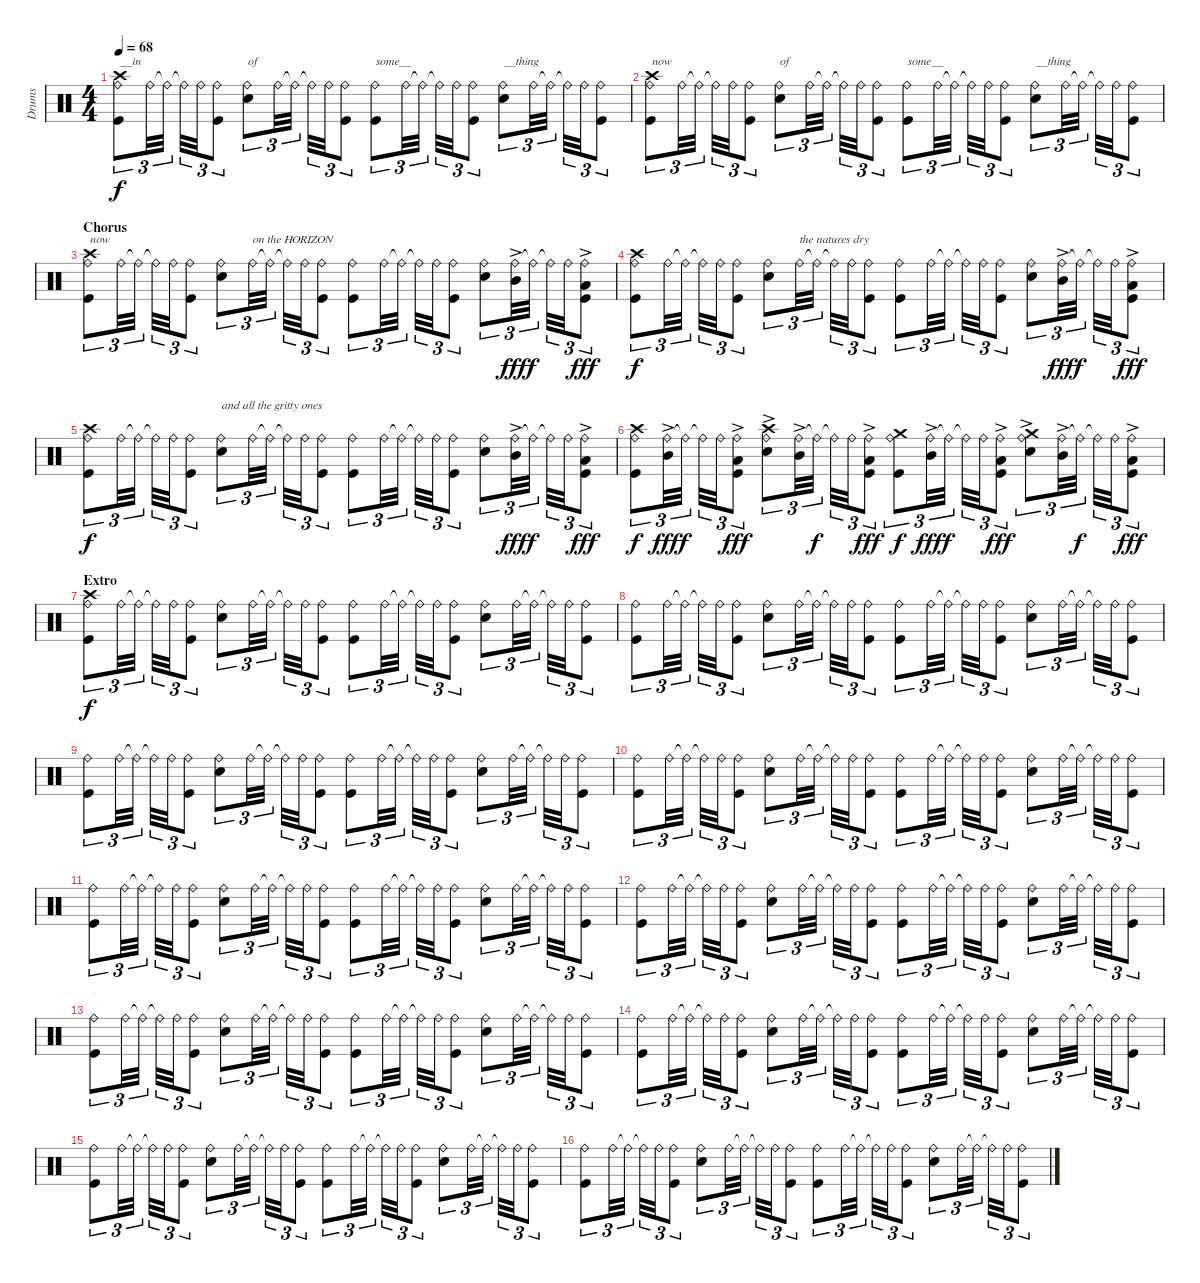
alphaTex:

\track ("Drums" "Drums") {instrument percussion}
\staff {score}
\articulation defaults
\ts (4 4)
\tempo 68
\clef neutral
\ks c
("Ride (bell)" "Crash high (hit)" "Kick (hit)").8{tu (3 2) txt "__in" dy f} "Ride (bell)".32{tu (3 2)} "Ride (bell)"{t}.32{tu (3 2)} "Ride (bell)"{t}.32{tu (3 2)} "Ride (bell)".32{tu (3 2)} ("Ride (bell)" "Kick (hit)").8{tu (3 2)} ("Ride (bell)" "Snare (hit) 2").8{tu (3 2) txt "of"} "Ride (bell)".32{tu (3 2)} "Ride (bell)"{t}.32{tu (3 2)} "Ride (bell)"{t}.32{tu (3 2)} "Ride (bell)".32{tu (3 2)} ("Ride (bell)" "Kick (hit)").8{tu (3 2)} ("Ride (bell)" "Kick (hit)").8{tu (3 2) txt "some__"} "Ride (bell)".32{tu (3 2)} "Ride (bell)"{t}.32{tu (3 2)} "Ride (bell)"{t}.32{tu (3 2)} "Ride (bell)".32{tu (3 2)} ("Ride (bell)" "Kick (hit)").8{tu (3 2)} ("Ride (bell)" "Snare (hit) 2").8{tu (3 2) txt "__thing"} "Ride (bell)".32{tu (3 2)} "Ride (bell)"{t}.32{tu (3 2)} "Ride (bell)"{t}.32{tu (3 2)} "Ride (bell)".32{tu (3 2)} ("Ride (bell)" "Kick (hit)").8{tu (3 2)} |
("Ride (bell)" "Crash high (hit)" "Kick (hit)").8{tu (3 2) txt "now"} "Ride (bell)".32{tu (3 2)} "Ride (bell)"{t}.32{tu (3 2)} "Ride (bell)"{t}.32{tu (3 2)} "Ride (bell)".32{tu (3 2)} ("Ride (bell)" "Kick (hit)").8{tu (3 2)} ("Ride (bell)" "Snare (hit) 2").8{tu (3 2) txt "of"} "Ride (bell)".32{tu (3 2)} "Ride (bell)"{t}.32{tu (3 2)} "Ride (bell)"{t}.32{tu (3 2)} "Ride (bell)".32{tu (3 2)} ("Ride (bell)" "Kick (hit)").8{tu (3 2)} ("Ride (bell)" "Kick (hit)").8{tu (3 2) txt "some__"} "Ride (bell)".32{tu (3 2)} "Ride (bell)"{t}.32{tu (3 2)} "Ride (bell)"{t}.32{tu (3 2)} "Ride (bell)".32{tu (3 2)} ("Ride (bell)" "Kick (hit)").8{tu (3 2)} ("Ride (bell)" "Snare (hit) 2").8{tu (3 2) txt "__thing"} "Ride (bell)".32{tu (3 2)} "Ride (bell)"{t}.32{tu (3 2)} "Ride (bell)"{t}.32{tu (3 2)} "Ride (bell)".32{tu (3 2)} ("Ride (bell)" "Kick (hit)").8{tu (3 2)} |
\section ("" "Chorus")
("Ride (bell)" "Crash high (hit)" "Kick (hit)").8{tu (3 2) txt "now"} "Ride (bell)".32{tu (3 2)} "Ride (bell)"{t}.32{tu (3 2)} "Ride (bell)"{t}.32{tu (3 2)} "Ride (bell)".32{tu (3 2)} ("Ride (bell)" "Kick (hit)").8{tu (3 2)} ("Ride (bell)" "Snare (hit) 2").8{tu (3 2)} "Ride (bell)".32{tu (3 2) txt "on the HORIZON"} "Ride (bell)"{t}.32{tu (3 2)} "Ride (bell)"{t}.32{tu (3 2)} "Ride (bell)".32{tu (3 2)} ("Ride (bell)" "Kick (hit)").8{tu (3 2)} ("Ride (bell)" "Kick (hit)").8{tu (3 2)} "Ride (bell)".32{tu (3 2)} "Ride (bell)"{t}.32{tu (3 2)} "Ride (bell)"{t}.32{tu (3 2)} "Ride (bell)".32{tu (3 2)} ("Ride (bell)" "Kick (hit)").8{tu (3 2)} ("Ride (bell)" "Snare (hit) 2").8{tu (3 2)} ("Ride (bell)" "Mid Tom (hit)"{ac}).32{tu (3 2) dy fff} "Ride (bell)"{t}.32{tu (3 2) dy f} "Ride (bell)"{t}.32{tu (3 2)} "Ride (bell)".32{tu (3 2)} ("Ride (bell)" "Low Tom (hit)"{ac} "Kick (hit)").8{tu (3 2) dy fff} |
("Ride (bell)" "Crash high (hit)" "Kick (hit)").8{tu (3 2) dy f} "Ride (bell)".32{tu (3 2)} "Ride (bell)"{t}.32{tu (3 2)} "Ride (bell)"{t}.32{tu (3 2)} "Ride (bell)".32{tu (3 2)} ("Ride (bell)" "Kick (hit)").8{tu (3 2)} ("Ride (bell)" "Snare (hit) 2").8{tu (3 2)} "Ride (bell)".32{tu (3 2) txt "the natures dry"} "Ride (bell)"{t}.32{tu (3 2)} "Ride (bell)"{t}.32{tu (3 2)} "Ride (bell)".32{tu (3 2)} ("Ride (bell)" "Kick (hit)").8{tu (3 2)} ("Ride (bell)" "Kick (hit)").8{tu (3 2)} "Ride (bell)".32{tu (3 2)} "Ride (bell)"{t}.32{tu (3 2)} "Ride (bell)"{t}.32{tu (3 2)} "Ride (bell)".32{tu (3 2)} ("Ride (bell)" "Kick (hit)").8{tu (3 2)} ("Ride (bell)" "Snare (hit) 2").8{tu (3 2)} ("Ride (bell)" "Mid Tom (hit)"{ac}).32{tu (3 2) dy fff} "Ride (bell)"{t}.32{tu (3 2) dy f} "Ride (bell)"{t}.32{tu (3 2)} "Ride (bell)".32{tu (3 2)} ("Ride (bell)" "Low Tom (hit)"{ac} "Kick (hit)").8{tu (3 2) dy fff} |
("Ride (bell)" "Crash high (hit)" "Kick (hit)").8{tu (3 2) dy f} "Ride (bell)".32{tu (3 2)} "Ride (bell)"{t}.32{tu (3 2)} "Ride (bell)"{t}.32{tu (3 2)} "Ride (bell)".32{tu (3 2)} ("Ride (bell)" "Kick (hit)").8{tu (3 2)} ("Ride (bell)" "Snare (hit) 2").8{tu (3 2) txt "and all the gritty ones"} "Ride (bell)".32{tu (3 2)} "Ride (bell)"{t}.32{tu (3 2)} "Ride (bell)"{t}.32{tu (3 2)} "Ride (bell)".32{tu (3 2)} ("Ride (bell)" "Kick (hit)").8{tu (3 2)} ("Ride (bell)" "Kick (hit)").8{tu (3 2)} "Ride (bell)".32{tu (3 2)} "Ride (bell)"{t}.32{tu (3 2)} "Ride (bell)"{t}.32{tu (3 2)} "Ride (bell)".32{tu (3 2)} ("Ride (bell)" "Kick (hit)").8{tu (3 2)} ("Ride (bell)" "Snare (hit) 2").8{tu (3 2)} ("Ride (bell)" "Mid Tom (hit)"{ac}).32{tu (3 2) dy fff} "Ride (bell)"{t}.32{tu (3 2) dy f} "Ride (bell)"{t}.32{tu (3 2)} "Ride (bell)".32{tu (3 2)} ("Ride (bell)" "Low Tom (hit)"{ac} "Kick (hit)").8{tu (3 2) dy fff} |
("Ride (bell)" "Crash high (hit)" "Kick (hit)").8{tu (3 2) dy f} ("Ride (bell)" "Mid Tom (hit)"{ac}).32{tu (3 2) dy fff} "Ride (bell)"{t}.32{tu (3 2) dy f} "Ride (bell)"{t}.32{tu (3 2)} "Ride (bell)".32{tu (3 2)} ("Ride (bell)" "Low Tom (hit)"{ac} "Kick (hit)").8{tu (3 2) dy fff} ("Ride (bell)" "Crash high (hit)" "Snare (hit) 2"{ac}).8{tu (3 2)} ("Ride (bell)" "Mid Tom (hit)"{ac}).32{tu (3 2)} "Ride (bell)"{t}.32{tu (3 2) dy f} "Ride (bell)"{t}.32{tu (3 2)} "Ride (bell)".32{tu (3 2)} ("Ride (bell)" "Low Tom (hit)"{ac} "Kick (hit)").8{tu (3 2) dy fff} ("Ride (bell)" "Crash medium (hit)" "Kick (hit)").8{tu (3 2) dy f} ("Ride (bell)" "Mid Tom (hit)"{ac}).32{tu (3 2) dy fff} "Ride (bell)"{t}.32{tu (3 2) dy f} "Ride (bell)"{t}.32{tu (3 2)} "Ride (bell)".32{tu (3 2)} ("Ride (bell)" "Low Tom (hit)"{ac} "Kick (hit)").8{tu (3 2) dy fff} ("Ride (bell)" "Crash medium (hit)" "Snare (hit) 2"{ac}).8{tu (3 2)} ("Ride (bell)" "Mid Tom (hit)"{ac}).32{tu (3 2)} "Ride (bell)"{t}.32{tu (3 2) dy f} "Ride (bell)"{t}.32{tu (3 2)} "Ride (bell)".32{tu (3 2)} ("Ride (bell)" "Low Tom (hit)"{ac} "Kick (hit)").8{tu (3 2) dy fff} |
\section ("" "Extro")
("Ride (bell)" "Crash high (hit)" "Kick (hit)").8{tu (3 2) dy f} "Ride (bell)".32{tu (3 2)} "Ride (bell)"{t}.32{tu (3 2)} "Ride (bell)"{t}.32{tu (3 2)} "Ride (bell)".32{tu (3 2)} ("Ride (bell)" "Kick (hit)").8{tu (3 2)} ("Ride (bell)" "Snare (hit) 2").8{tu (3 2)} "Ride (bell)".32{tu (3 2)} "Ride (bell)"{t}.32{tu (3 2)} "Ride (bell)"{t}.32{tu (3 2)} "Ride (bell)".32{tu (3 2)} ("Ride (bell)" "Kick (hit)").8{tu (3 2)} ("Ride (bell)" "Kick (hit)").8{tu (3 2)} "Ride (bell)".32{tu (3 2)} "Ride (bell)"{t}.32{tu (3 2)} "Ride (bell)"{t}.32{tu (3 2)} "Ride (bell)".32{tu (3 2)} ("Ride (bell)" "Kick (hit)").8{tu (3 2)} ("Ride (bell)" "Snare (hit) 2").8{tu (3 2)} "Ride (bell)".32{tu (3 2)} "Ride (bell)"{t}.32{tu (3 2)} "Ride (bell)"{t}.32{tu (3 2)} "Ride (bell)".32{tu (3 2)} ("Ride (bell)" "Kick (hit)").8{tu (3 2)} |
("Ride (bell)" "Kick (hit)").8{tu (3 2)} "Ride (bell)".32{tu (3 2)} "Ride (bell)"{t}.32{tu (3 2)} "Ride (bell)"{t}.32{tu (3 2)} "Ride (bell)".32{tu (3 2)} ("Ride (bell)" "Kick (hit)").8{tu (3 2)} ("Ride (bell)" "Snare (hit) 2").8{tu (3 2)} "Ride (bell)".32{tu (3 2)} "Ride (bell)"{t}.32{tu (3 2)} "Ride (bell)"{t}.32{tu (3 2)} "Ride (bell)".32{tu (3 2)} ("Ride (bell)" "Kick (hit)").8{tu (3 2)} ("Ride (bell)" "Kick (hit)").8{tu (3 2)} "Ride (bell)".32{tu (3 2)} "Ride (bell)"{t}.32{tu (3 2)} "Ride (bell)"{t}.32{tu (3 2)} "Ride (bell)".32{tu (3 2)} ("Ride (bell)" "Kick (hit)").8{tu (3 2)} ("Ride (bell)" "Snare (hit) 2").8{tu (3 2)} "Ride (bell)".32{tu (3 2)} "Ride (bell)"{t}.32{tu (3 2)} "Ride (bell)"{t}.32{tu (3 2)} "Ride (bell)".32{tu (3 2)} ("Ride (bell)" "Kick (hit)").8{tu (3 2)} |
("Ride (bell)" "Kick (hit)").8{tu (3 2)} "Ride (bell)".32{tu (3 2)} "Ride (bell)"{t}.32{tu (3 2)} "Ride (bell)"{t}.32{tu (3 2)} "Ride (bell)".32{tu (3 2)} ("Ride (bell)" "Kick (hit)").8{tu (3 2)} ("Ride (bell)" "Snare (hit) 2").8{tu (3 2)} "Ride (bell)".32{tu (3 2)} "Ride (bell)"{t}.32{tu (3 2)} "Ride (bell)"{t}.32{tu (3 2)} "Ride (bell)".32{tu (3 2)} ("Ride (bell)" "Kick (hit)").8{tu (3 2)} ("Ride (bell)" "Kick (hit)").8{tu (3 2)} "Ride (bell)".32{tu (3 2)} "Ride (bell)"{t}.32{tu (3 2)} "Ride (bell)"{t}.32{tu (3 2)} "Ride (bell)".32{tu (3 2)} ("Ride (bell)" "Kick (hit)").8{tu (3 2)} ("Ride (bell)" "Snare (hit) 2").8{tu (3 2)} "Ride (bell)".32{tu (3 2)} "Ride (bell)"{t}.32{tu (3 2)} "Ride (bell)"{t}.32{tu (3 2)} "Ride (bell)".32{tu (3 2)} ("Ride (bell)" "Kick (hit)").8{tu (3 2)} |
("Ride (bell)" "Kick (hit)").8{tu (3 2)} "Ride (bell)".32{tu (3 2)} "Ride (bell)"{t}.32{tu (3 2)} "Ride (bell)"{t}.32{tu (3 2)} "Ride (bell)".32{tu (3 2)} ("Ride (bell)" "Kick (hit)").8{tu (3 2)} ("Ride (bell)" "Snare (hit) 2").8{tu (3 2)} "Ride (bell)".32{tu (3 2)} "Ride (bell)"{t}.32{tu (3 2)} "Ride (bell)"{t}.32{tu (3 2)} "Ride (bell)".32{tu (3 2)} ("Ride (bell)" "Kick (hit)").8{tu (3 2)} ("Ride (bell)" "Kick (hit)").8{tu (3 2)} "Ride (bell)".32{tu (3 2)} "Ride (bell)"{t}.32{tu (3 2)} "Ride (bell)"{t}.32{tu (3 2)} "Ride (bell)".32{tu (3 2)} ("Ride (bell)" "Kick (hit)").8{tu (3 2)} ("Ride (bell)" "Snare (hit) 2").8{tu (3 2)} "Ride (bell)".32{tu (3 2)} "Ride (bell)"{t}.32{tu (3 2)} "Ride (bell)"{t}.32{tu (3 2)} "Ride (bell)".32{tu (3 2)} ("Ride (bell)" "Kick (hit)").8{tu (3 2)} |
("Ride (bell)" "Kick (hit)").8{tu (3 2)} "Ride (bell)".32{tu (3 2)} "Ride (bell)"{t}.32{tu (3 2)} "Ride (bell)"{t}.32{tu (3 2)} "Ride (bell)".32{tu (3 2)} ("Ride (bell)" "Kick (hit)").8{tu (3 2)} ("Ride (bell)" "Snare (hit) 2").8{tu (3 2)} "Ride (bell)".32{tu (3 2)} "Ride (bell)"{t}.32{tu (3 2)} "Ride (bell)"{t}.32{tu (3 2)} "Ride (bell)".32{tu (3 2)} ("Ride (bell)" "Kick (hit)").8{tu (3 2)} ("Ride (bell)" "Kick (hit)").8{tu (3 2)} "Ride (bell)".32{tu (3 2)} "Ride (bell)"{t}.32{tu (3 2)} "Ride (bell)"{t}.32{tu (3 2)} "Ride (bell)".32{tu (3 2)} ("Ride (bell)" "Kick (hit)").8{tu (3 2)} ("Ride (bell)" "Snare (hit) 2").8{tu (3 2)} "Ride (bell)".32{tu (3 2)} "Ride (bell)"{t}.32{tu (3 2)} "Ride (bell)"{t}.32{tu (3 2)} "Ride (bell)".32{tu (3 2)} ("Ride (bell)" "Kick (hit)").8{tu (3 2)} |
("Ride (bell)" "Kick (hit)").8{tu (3 2)} "Ride (bell)".32{tu (3 2)} "Ride (bell)"{t}.32{tu (3 2)} "Ride (bell)"{t}.32{tu (3 2)} "Ride (bell)".32{tu (3 2)} ("Ride (bell)" "Kick (hit)").8{tu (3 2)} ("Ride (bell)" "Snare (hit) 2").8{tu (3 2)} "Ride (bell)".32{tu (3 2)} "Ride (bell)"{t}.32{tu (3 2)} "Ride (bell)"{t}.32{tu (3 2)} "Ride (bell)".32{tu (3 2)} ("Ride (bell)" "Kick (hit)").8{tu (3 2)} ("Ride (bell)" "Kick (hit)").8{tu (3 2)} "Ride (bell)".32{tu (3 2)} "Ride (bell)"{t}.32{tu (3 2)} "Ride (bell)"{t}.32{tu (3 2)} "Ride (bell)".32{tu (3 2)} ("Ride (bell)" "Kick (hit)").8{tu (3 2)} ("Ride (bell)" "Snare (hit) 2").8{tu (3 2)} "Ride (bell)".32{tu (3 2)} "Ride (bell)"{t}.32{tu (3 2)} "Ride (bell)"{t}.32{tu (3 2)} "Ride (bell)".32{tu (3 2)} ("Ride (bell)" "Kick (hit)").8{tu (3 2)} |
("Ride (bell)" "Kick (hit)").8{tu (3 2)} "Ride (bell)".32{tu (3 2)} "Ride (bell)"{t}.32{tu (3 2)} "Ride (bell)"{t}.32{tu (3 2)} "Ride (bell)".32{tu (3 2)} ("Ride (bell)" "Kick (hit)").8{tu (3 2)} ("Ride (bell)" "Snare (hit) 2").8{tu (3 2)} "Ride (bell)".32{tu (3 2)} "Ride (bell)"{t}.32{tu (3 2)} "Ride (bell)"{t}.32{tu (3 2)} "Ride (bell)".32{tu (3 2)} ("Ride (bell)" "Kick (hit)").8{tu (3 2)} ("Ride (bell)" "Kick (hit)").8{tu (3 2)} "Ride (bell)".32{tu (3 2)} "Ride (bell)"{t}.32{tu (3 2)} "Ride (bell)"{t}.32{tu (3 2)} "Ride (bell)".32{tu (3 2)} ("Ride (bell)" "Kick (hit)").8{tu (3 2)} ("Ride (bell)" "Snare (hit) 2").8{tu (3 2)} "Ride (bell)".32{tu (3 2)} "Ride (bell)"{t}.32{tu (3 2)} "Ride (bell)"{t}.32{tu (3 2)} "Ride (bell)".32{tu (3 2)} ("Ride (bell)" "Kick (hit)").8{tu (3 2)} |
("Ride (bell)" "Kick (hit)").8{tu (3 2)} "Ride (bell)".32{tu (3 2)} "Ride (bell)"{t}.32{tu (3 2)} "Ride (bell)"{t}.32{tu (3 2)} "Ride (bell)".32{tu (3 2)} ("Ride (bell)" "Kick (hit)").8{tu (3 2)} ("Ride (bell)" "Snare (hit) 2").8{tu (3 2)} "Ride (bell)".32{tu (3 2)} "Ride (bell)"{t}.32{tu (3 2)} "Ride (bell)"{t}.32{tu (3 2)} "Ride (bell)".32{tu (3 2)} ("Ride (bell)" "Kick (hit)").8{tu (3 2)} ("Ride (bell)" "Kick (hit)").8{tu (3 2)} "Ride (bell)".32{tu (3 2)} "Ride (bell)"{t}.32{tu (3 2)} "Ride (bell)"{t}.32{tu (3 2)} "Ride (bell)".32{tu (3 2)} ("Ride (bell)" "Kick (hit)").8{tu (3 2)} ("Ride (bell)" "Snare (hit) 2").8{tu (3 2)} "Ride (bell)".32{tu (3 2)} "Ride (bell)"{t}.32{tu (3 2)} "Ride (bell)"{t}.32{tu (3 2)} "Ride (bell)".32{tu (3 2)} ("Ride (bell)" "Kick (hit)").8{tu (3 2)} |
("Ride (bell)" "Kick (hit)").8{tu (3 2)} "Ride (bell)".32{tu (3 2)} "Ride (bell)"{t}.32{tu (3 2)} "Ride (bell)"{t}.32{tu (3 2)} "Ride (bell)".32{tu (3 2)} ("Ride (bell)" "Kick (hit)").8{tu (3 2)} ("Ride (bell)" "Snare (hit) 2").8{tu (3 2)} "Ride (bell)".32{tu (3 2)} "Ride (bell)"{t}.32{tu (3 2)} "Ride (bell)"{t}.32{tu (3 2)} "Ride (bell)".32{tu (3 2)} ("Ride (bell)" "Kick (hit)").8{tu (3 2)} ("Ride (bell)" "Kick (hit)").8{tu (3 2)} "Ride (bell)".32{tu (3 2)} "Ride (bell)"{t}.32{tu (3 2)} "Ride (bell)"{t}.32{tu (3 2)} "Ride (bell)".32{tu (3 2)} ("Ride (bell)" "Kick (hit)").8{tu (3 2)} ("Ride (bell)" "Snare (hit) 2").8{tu (3 2)} "Ride (bell)".32{tu (3 2)} "Ride (bell)"{t}.32{tu (3 2)} "Ride (bell)"{t}.32{tu (3 2)} "Ride (bell)".32{tu (3 2)} ("Ride (bell)" "Kick (hit)").8{tu (3 2)} |
("Ride (bell)" "Kick (hit)").8{tu (3 2)} "Ride (bell)".32{tu (3 2)} "Ride (bell)"{t}.32{tu (3 2)} "Ride (bell)"{t}.32{tu (3 2)} "Ride (bell)".32{tu (3 2)} ("Ride (bell)" "Kick (hit)").8{tu (3 2)} ("Ride (bell)" "Snare (hit) 2").8{tu (3 2)} "Ride (bell)".32{tu (3 2)} "Ride (bell)"{t}.32{tu (3 2)} "Ride (bell)"{t}.32{tu (3 2)} "Ride (bell)".32{tu (3 2)} ("Ride (bell)" "Kick (hit)").8{tu (3 2)} ("Ride (bell)" "Kick (hit)").8{tu (3 2)} "Ride (bell)".32{tu (3 2)} "Ride (bell)"{t}.32{tu (3 2)} "Ride (bell)"{t}.32{tu (3 2)} "Ride (bell)".32{tu (3 2)} ("Ride (bell)" "Kick (hit)").8{tu (3 2)} ("Ride (bell)" "Snare (hit) 2").8{tu (3 2)} "Ride (bell)".32{tu (3 2)} "Ride (bell)"{t}.32{tu (3 2)} "Ride (bell)"{t}.32{tu (3 2)} "Ride (bell)".32{tu (3 2)} ("Ride (bell)" "Kick (hit)").8{tu (3 2)}
